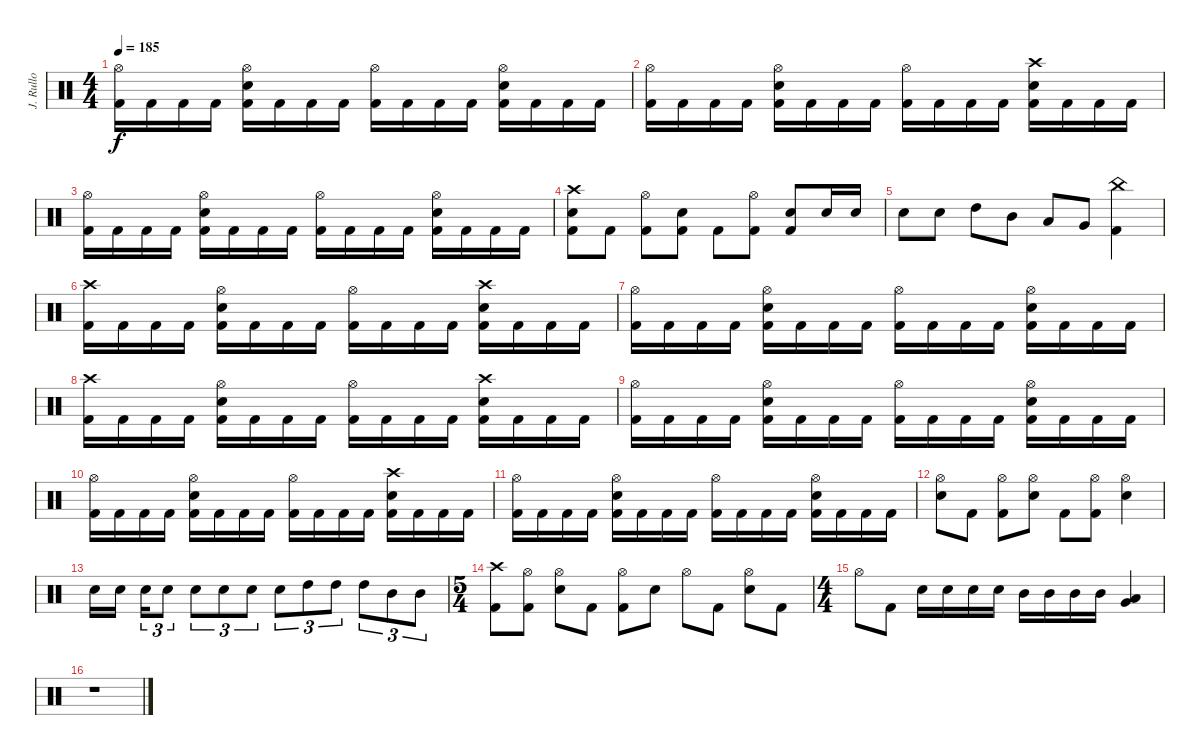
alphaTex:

\track ("J. Rullo" "J. Rullo") {instrument percussion}
\staff {score}
\articulation defaults
\ts (4 4)
\tempo 185
\clef neutral
\ks c
("Hi-Hat (open)" "Kick (hit) 2").16{dy f} "Kick (hit) 2".16 "Kick (hit) 2".16 "Kick (hit) 2".16 ("Hi-Hat (open)" "Snare (hit) 2" "Kick (hit) 2").16 "Kick (hit) 2".16 "Kick (hit) 2".16 "Kick (hit) 2".16 ("Hi-Hat (open)" "Kick (hit) 2").16 "Kick (hit) 2".16 "Kick (hit) 2".16 "Kick (hit) 2".16 ("Hi-Hat (open)" "Snare (hit) 2" "Kick (hit) 2").16 "Kick (hit) 2".16 "Kick (hit) 2".16 "Kick (hit) 2".16 |
("Hi-Hat (open)" "Kick (hit) 2").16 "Kick (hit) 2".16 "Kick (hit) 2".16 "Kick (hit) 2".16 ("Hi-Hat (open)" "Snare (hit) 2" "Kick (hit) 2").16 "Kick (hit) 2".16 "Kick (hit) 2".16 "Kick (hit) 2".16 ("Hi-Hat (open)" "Kick (hit) 2").16 "Kick (hit) 2".16 "Kick (hit) 2".16 "Kick (hit) 2".16 ("Crash high (hit)" "Snare (hit) 2" "Kick (hit) 2").16 "Kick (hit) 2".16 "Kick (hit) 2".16 "Kick (hit) 2".16 |
("Hi-Hat (open)" "Kick (hit) 2").16 "Kick (hit) 2".16 "Kick (hit) 2".16 "Kick (hit) 2".16 ("Hi-Hat (open)" "Snare (hit) 2" "Kick (hit) 2").16 "Kick (hit) 2".16 "Kick (hit) 2".16 "Kick (hit) 2".16 ("Hi-Hat (open)" "Kick (hit) 2").16 "Kick (hit) 2".16 "Kick (hit) 2".16 "Kick (hit) 2".16 ("Hi-Hat (open)" "Snare (hit) 2" "Kick (hit) 2").16 "Kick (hit) 2".16 "Kick (hit) 2".16 "Kick (hit) 2".16 |
("Crash high (hit)" "Snare (hit) 2" "Kick (hit) 2").8 "Kick (hit) 2".8 ("Hi-Hat (open)" "Kick (hit) 2").8 ("Snare (hit) 2" "Kick (hit) 2").8 "Kick (hit) 2".8 ("Hi-Hat (open)" "Kick (hit) 2").8 ("Snare (hit) 2" "Kick (hit) 2").8 "Snare (hit) 2".16 "Snare (hit) 2".16 |
"Snare (hit) 2".8 "Snare (hit) 2".8 "High Tom (hit)".8 "Mid Tom (hit)".8 "Low Tom (hit)".8 "Very Low Tom (hit)".8 ("China (hit)" "Kick (hit) 2").4 |
("Crash high (hit)" "Kick (hit) 2").16 "Kick (hit) 2".16 "Kick (hit) 2".16 "Kick (hit) 2".16 ("Hi-Hat (open)" "Snare (hit) 2" "Kick (hit) 2").16 "Kick (hit) 2".16 "Kick (hit) 2".16 "Kick (hit) 2".16 ("Hi-Hat (open)" "Kick (hit) 2").16 "Kick (hit) 2".16 "Kick (hit) 2".16 "Kick (hit) 2".16 ("Crash high (hit)" "Snare (hit) 2" "Kick (hit) 2").16 "Kick (hit) 2".16 "Kick (hit) 2".16 "Kick (hit) 2".16 |
("Hi-Hat (open)" "Kick (hit) 2").16 "Kick (hit) 2".16 "Kick (hit) 2".16 "Kick (hit) 2".16 ("Hi-Hat (open)" "Snare (hit) 2" "Kick (hit) 2").16 "Kick (hit) 2".16 "Kick (hit) 2".16 "Kick (hit) 2".16 ("Hi-Hat (open)" "Kick (hit) 2").16 "Kick (hit) 2".16 "Kick (hit) 2".16 "Kick (hit) 2".16 ("Hi-Hat (open)" "Snare (hit) 2" "Kick (hit) 2").16 "Kick (hit) 2".16 "Kick (hit) 2".16 "Kick (hit) 2".16 |
("Crash high (hit)" "Kick (hit) 2").16 "Kick (hit) 2".16 "Kick (hit) 2".16 "Kick (hit) 2".16 ("Hi-Hat (open)" "Snare (hit) 2" "Kick (hit) 2").16 "Kick (hit) 2".16 "Kick (hit) 2".16 "Kick (hit) 2".16 ("Hi-Hat (open)" "Kick (hit) 2").16 "Kick (hit) 2".16 "Kick (hit) 2".16 "Kick (hit) 2".16 ("Crash high (hit)" "Snare (hit) 2" "Kick (hit) 2").16 "Kick (hit) 2".16 "Kick (hit) 2".16 "Kick (hit) 2".16 |
("Hi-Hat (open)" "Kick (hit) 2").16 "Kick (hit) 2".16 "Kick (hit) 2".16 "Kick (hit) 2".16 ("Hi-Hat (open)" "Snare (hit) 2" "Kick (hit) 2").16 "Kick (hit) 2".16 "Kick (hit) 2".16 "Kick (hit) 2".16 ("Hi-Hat (open)" "Kick (hit) 2").16 "Kick (hit) 2".16 "Kick (hit) 2".16 "Kick (hit) 2".16 ("Hi-Hat (open)" "Snare (hit) 2" "Kick (hit) 2").16 "Kick (hit) 2".16 "Kick (hit) 2".16 "Kick (hit) 2".16 |
("Hi-Hat (open)" "Kick (hit) 2").16 "Kick (hit) 2".16 "Kick (hit) 2".16 "Kick (hit) 2".16 ("Hi-Hat (open)" "Snare (hit) 2" "Kick (hit) 2").16 "Kick (hit) 2".16 "Kick (hit) 2".16 "Kick (hit) 2".16 ("Hi-Hat (open)" "Kick (hit) 2").16 "Kick (hit) 2".16 "Kick (hit) 2".16 "Kick (hit) 2".16 ("Crash high (hit)" "Snare (hit) 2" "Kick (hit) 2").16 "Kick (hit) 2".16 "Kick (hit) 2".16 "Kick (hit) 2".16 |
("Hi-Hat (open)" "Kick (hit) 2").16 "Kick (hit) 2".16 "Kick (hit) 2".16 "Kick (hit) 2".16 ("Hi-Hat (open)" "Snare (hit) 2" "Kick (hit) 2").16 "Kick (hit) 2".16 "Kick (hit) 2".16 "Kick (hit) 2".16 ("Hi-Hat (open)" "Kick (hit) 2").16 "Kick (hit) 2".16 "Kick (hit) 2".16 "Kick (hit) 2".16 ("Hi-Hat (open)" "Snare (hit) 2" "Kick (hit) 2").16 "Kick (hit) 2".16 "Kick (hit) 2".16 "Kick (hit) 2".16 |
("Hi-Hat (open)" "Snare (hit) 2").8 "Kick (hit) 2".8 ("Hi-Hat (open)" "Kick (hit) 2").8 ("Hi-Hat (open)" "Snare (hit) 2").8 "Kick (hit) 2".8 ("Hi-Hat (open)" "Kick (hit) 2").8 ("Hi-Hat (open)" "Snare (hit) 2").4 |
"Snare (hit) 2".16 "Snare (hit) 2".16 "Snare (hit) 2".16{tu (3 2)} "Snare (hit) 2".8{tu (3 2)} "Snare (hit) 2".8{tu (3 2)} "Snare (hit) 2".8{tu (3 2)} "Snare (hit) 2".8{tu (3 2)} "Snare (hit) 2".8{tu (3 2)} "High Tom (hit)".8{tu (3 2)} "High Tom (hit)".8{tu (3 2)} "High Tom (hit)".8{tu (3 2)} "Mid Tom (hit)".8{tu (3 2)} "Mid Tom (hit)".8{tu (3 2)} |
\ts (5 4)
("Crash high (hit)" "Kick (hit) 2").8 ("Hi-Hat (open)" "Kick (hit) 2").8 ("Hi-Hat (open)" "Snare (hit) 2").8 "Kick (hit) 2".8 ("Hi-Hat (open)" "Kick (hit) 2").8 "Snare (hit) 2".8 "Hi-Hat (open)".8 "Kick (hit) 2".8 ("Hi-Hat (open)" "Snare (hit) 2").8 "Kick (hit) 2".8 |
\ts (4 4)
"Hi-Hat (open)".8 "Kick (hit) 2".8 "Snare (hit) 2".16 "Snare (hit) 2".16 "Snare (hit) 2".16 "Snare (hit) 2".16 "Mid Tom (hit)".16 "Mid Tom (hit)".16 "Mid Tom (hit)".16 "Mid Tom (hit)".16 ("Low Tom (hit)" "Very Low Tom (hit)").4 |
r.1
